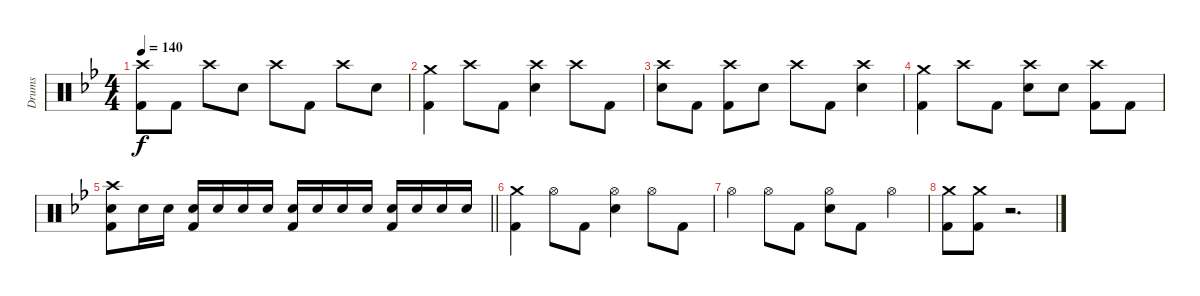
\track ("Drums" "Drums") {instrument percussion}
\staff {score}
\articulation defaults
\ts (4 4)
\tempo 140
\clef neutral
\ks gminor
("Crash high (hit)" "Kick (hit) 2").8{dy f} "Kick (hit) 2".8 "Crash high (hit)".8 "Electric Snare (hit)".8 "Crash high (hit)".8 "Kick (hit) 2".8 "Crash high (hit)".8 "Electric Snare (hit)".8 |
("Crash medium (hit)" "Kick (hit) 2").4 "Crash high (hit)".8 "Kick (hit) 2".8 ("Crash high (hit)" "Electric Snare (hit)").4 "Crash high (hit)".8 "Kick (hit) 2".8 |
("Crash high (hit)" "Electric Snare (hit)").8 "Kick (hit) 2".8 ("Crash high (hit)" "Kick (hit) 2").8 "Electric Snare (hit)".8 "Crash high (hit)".8 "Kick (hit) 2".8 ("Crash high (hit)" "Electric Snare (hit)").4 |
("Crash medium (hit)" "Kick (hit) 2").4 "Crash high (hit)".8 "Kick (hit) 2".8 ("Crash high (hit)" "Electric Snare (hit)").8 "Electric Snare (hit)".8 ("Crash high (hit)" "Kick (hit) 2").8 "Kick (hit) 2".8 |
\barLineRight lightlight
("Crash high (hit)" "Electric Snare (hit)" "Kick (hit) 2").8 "Electric Snare (hit)".16 "Electric Snare (hit)".16 ("Electric Snare (hit)" "Kick (hit) 2").16 "Electric Snare (hit)".16 "Electric Snare (hit)".16 "Electric Snare (hit)".16 ("Electric Snare (hit)" "Kick (hit) 2").16 "Electric Snare (hit)".16 "Electric Snare (hit)".16 "Electric Snare (hit)".16 ("Electric Snare (hit)" "Kick (hit) 2").16 "Electric Snare (hit)".16 "Electric Snare (hit)".16 "Electric Snare (hit)".16 |
("Crash medium (hit)" "Kick (hit) 2").4 "Hi-Hat (open)".8 "Kick (hit) 2".8 ("Hi-Hat (open)" "Electric Snare (hit)").4 "Hi-Hat (open)".8 "Kick (hit) 2".8 |
"Hi-Hat (open)".4 "Hi-Hat (open)".8 "Kick (hit) 2".8 ("Hi-Hat (open)" "Electric Snare (hit)").8 "Kick (hit) 2".8 "Hi-Hat (open)".4 |
("Crash medium (hit)" "Kick (hit) 2").8 ("Crash medium (hit)" "Kick (hit) 2").8 r.2{d}
